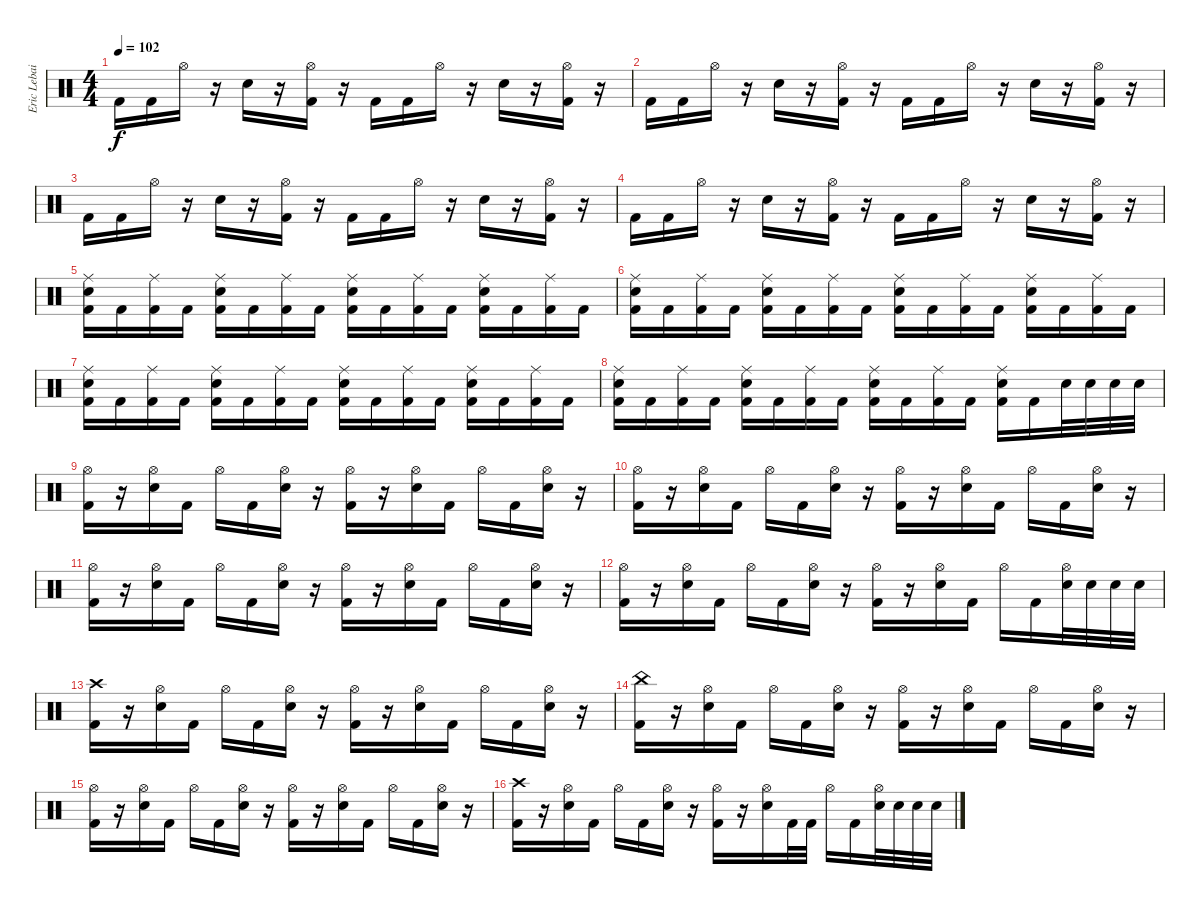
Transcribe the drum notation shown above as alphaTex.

\track ("Eric Lebailly" "Eric Lebai") {instrument percussion}
\staff {score}
\articulation defaults
\ts (4 4)
\tempo 102
\clef neutral
\ks c "Kick (hit) 2".16{dy f} "Kick (hit) 2".16 "Hi-Hat (open)".16
r.16 "Snare (hit) 2".16 r.16 ("Hi-Hat (open)" "Kick (hit) 2").16 r.16 "Kick (hit) 2".16 "Kick (hit) 2".16 "Hi-Hat (open)".16 r.16 "Snare (hit) 2".16 r.16 ("Hi-Hat (open)" "Kick (hit) 2").16 r.16 |
"Kick (hit) 2".16 "Kick (hit) 2".16 "Hi-Hat (open)".16 r.16 "Snare (hit) 2".16 r.16 ("Hi-Hat (open)" "Kick (hit) 2").16 r.16 "Kick (hit) 2".16 "Kick (hit) 2".16 "Hi-Hat (open)".16 r.16 "Snare (hit) 2".16 r.16 ("Hi-Hat (open)" "Kick (hit) 2").16 r.16 |
"Kick (hit) 2".16 "Kick (hit) 2".16 "Hi-Hat (open)".16 r.16 "Snare (hit) 2".16 r.16 ("Hi-Hat (open)" "Kick (hit) 2").16 r.16 "Kick (hit) 2".16 "Kick (hit) 2".16 "Hi-Hat (open)".16 r.16 "Snare (hit) 2".16 r.16 ("Hi-Hat (open)" "Kick (hit) 2").16 r.16 |
"Kick (hit) 2".16 "Kick (hit) 2".16 "Hi-Hat (open)".16 r.16 "Snare (hit) 2".16 r.16 ("Hi-Hat (open)" "Kick (hit) 2").16 r.16 "Kick (hit) 2".16 "Kick (hit) 2".16 "Hi-Hat (open)".16 r.16 "Snare (hit) 2".16 r.16 ("Hi-Hat (open)" "Kick (hit) 2").16 r.16 |
("Ride (middle)" "Snare (hit) 2" "Kick (hit) 2").16 "Kick (hit) 2".16 ("Ride (middle)" "Kick (hit) 2").16 "Kick (hit) 2".16 ("Ride (middle)" "Snare (hit) 2" "Kick (hit) 2").16 "Kick (hit) 2".16 ("Ride (middle)" "Kick (hit) 2").16 "Kick (hit) 2".16 ("Ride (middle)" "Snare (hit) 2" "Kick (hit) 2").16 "Kick (hit) 2".16 ("Ride (middle)" "Kick (hit) 2").16 "Kick (hit) 2".16 ("Ride (middle)" "Snare (hit) 2" "Kick (hit) 2").16 "Kick (hit) 2".16 ("Ride (middle)" "Kick (hit) 2").16 "Kick (hit) 2".16 |
("Ride (middle)" "Snare (hit) 2" "Kick (hit) 2").16 "Kick (hit) 2".16 ("Ride (middle)" "Kick (hit) 2").16 "Kick (hit) 2".16 ("Ride (middle)" "Snare (hit) 2" "Kick (hit) 2").16 "Kick (hit) 2".16 ("Ride (middle)" "Kick (hit) 2").16 "Kick (hit) 2".16 ("Ride (middle)" "Snare (hit) 2" "Kick (hit) 2").16 "Kick (hit) 2".16 ("Ride (middle)" "Kick (hit) 2").16 "Kick (hit) 2".16 ("Ride (middle)" "Snare (hit) 2" "Kick (hit) 2").16 "Kick (hit) 2".16 ("Ride (middle)" "Kick (hit) 2").16 "Kick (hit) 2".16 |
("Ride (middle)" "Snare (hit) 2" "Kick (hit) 2").16 "Kick (hit) 2".16 ("Ride (middle)" "Kick (hit) 2").16 "Kick (hit) 2".16 ("Ride (middle)" "Snare (hit) 2" "Kick (hit) 2").16 "Kick (hit) 2".16 ("Ride (middle)" "Kick (hit) 2").16 "Kick (hit) 2".16 ("Ride (middle)" "Snare (hit) 2" "Kick (hit) 2").16 "Kick (hit) 2".16 ("Ride (middle)" "Kick (hit) 2").16 "Kick (hit) 2".16 ("Ride (middle)" "Snare (hit) 2" "Kick (hit) 2").16 "Kick (hit) 2".16 ("Ride (middle)" "Kick (hit) 2").16 "Kick (hit) 2".16 |
("Ride (middle)" "Snare (hit) 2" "Kick (hit) 2").16 "Kick (hit) 2".16 ("Ride (middle)" "Kick (hit) 2").16 "Kick (hit) 2".16 ("Ride (middle)" "Snare (hit) 2" "Kick (hit) 2").16 "Kick (hit) 2".16 ("Ride (middle)" "Kick (hit) 2").16 "Kick (hit) 2".16 ("Ride (middle)" "Snare (hit) 2" "Kick (hit) 2").16 "Kick (hit) 2".16 ("Ride (middle)" "Kick (hit) 2").16 "Kick (hit) 2".16 ("Ride (middle)" "Snare (hit) 2" "Kick (hit) 2").16 "Kick (hit) 2".16 "Snare (hit) 2".32 "Snare (hit) 2".32 "Snare (hit) 2".32 "Snare (hit) 2".32 |
("Hi-Hat (open)" "Kick (hit) 2").16 r.16 ("Hi-Hat (open)" "Snare (hit) 2").16 "Kick (hit) 2".16 "Hi-Hat (open)".16 "Kick (hit) 2".16 ("Hi-Hat (open)" "Snare (hit) 2").16 r.16 ("Hi-Hat (open)" "Kick (hit) 2").16 r.16 ("Hi-Hat (open)" "Snare (hit) 2").16 "Kick (hit) 2".16 "Hi-Hat (open)".16 "Kick (hit) 2".16 ("Hi-Hat (open)" "Snare (hit) 2").16 r.16 |
("Hi-Hat (open)" "Kick (hit) 2").16 r.16 ("Hi-Hat (open)" "Snare (hit) 2").16 "Kick (hit) 2".16 "Hi-Hat (open)".16 "Kick (hit) 2".16 ("Hi-Hat (open)" "Snare (hit) 2").16 r.16 ("Hi-Hat (open)" "Kick (hit) 2").16 r.16 ("Hi-Hat (open)" "Snare (hit) 2").16 "Kick (hit) 2".16 "Hi-Hat (open)".16 "Kick (hit) 2".16 ("Hi-Hat (open)" "Snare (hit) 2").16 r.16 |
("Hi-Hat (open)" "Kick (hit) 2").16 r.16 ("Hi-Hat (open)" "Snare (hit) 2").16 "Kick (hit) 2".16 "Hi-Hat (open)".16 "Kick (hit) 2".16 ("Hi-Hat (open)" "Snare (hit) 2").16 r.16 ("Hi-Hat (open)" "Kick (hit) 2").16 r.16 ("Hi-Hat (open)" "Snare (hit) 2").16 "Kick (hit) 2".16 "Hi-Hat (open)".16 "Kick (hit) 2".16 ("Hi-Hat (open)" "Snare (hit) 2").16 r.16 |
("Hi-Hat (open)" "Kick (hit) 2").16 r.16 ("Hi-Hat (open)" "Snare (hit) 2").16 "Kick (hit) 2".16 "Hi-Hat (open)".16 "Kick (hit) 2".16 ("Hi-Hat (open)" "Snare (hit) 2").16 r.16 ("Hi-Hat (open)" "Kick (hit) 2").16 r.16 ("Hi-Hat (open)" "Snare (hit) 2").16 "Kick (hit) 2".16 "Hi-Hat (open)".16 "Kick (hit) 2".16 ("Hi-Hat (open)" "Snare (hit) 2").32 "Snare (hit) 2".32 "Snare (hit) 2".32 "Snare (hit) 2".32 |
("Crash high (hit)" "Kick (hit) 2").16 r.16 ("Hi-Hat (open)" "Snare (hit) 2").16 "Kick (hit) 2".16 "Hi-Hat (open)".16 "Kick (hit) 2".16 ("Hi-Hat (open)" "Snare (hit) 2").16 r.16 ("Hi-Hat (open)" "Kick (hit) 2").16 r.16 ("Hi-Hat (open)" "Snare (hit) 2").16 "Kick (hit) 2".16 "Hi-Hat (open)".16 "Kick (hit) 2".16 ("Hi-Hat (open)" "Snare (hit) 2").16 r.16 |
("China (hit)" "Kick (hit) 2").16 r.16 ("Hi-Hat (open)" "Snare (hit) 2").16 "Kick (hit) 2".16 "Hi-Hat (open)".16 "Kick (hit) 2".16 ("Hi-Hat (open)" "Snare (hit) 2").16 r.16 ("Hi-Hat (open)" "Kick (hit) 2").16 r.16 ("Hi-Hat (open)" "Snare (hit) 2").16 "Kick (hit) 2".16 "Hi-Hat (open)".16 "Kick (hit) 2".16 ("Hi-Hat (open)" "Snare (hit) 2").16 r.16 |
("Hi-Hat (open)" "Kick (hit) 2").16 r.16 ("Hi-Hat (open)" "Snare (hit) 2").16 "Kick (hit) 2".16 "Hi-Hat (open)".16 "Kick (hit) 2".16 ("Hi-Hat (open)" "Snare (hit) 2").16 r.16 ("Hi-Hat (open)" "Kick (hit) 2").16 r.16 ("Hi-Hat (open)" "Snare (hit) 2").16 "Kick (hit) 2".16 "Hi-Hat (open)".16 "Kick (hit) 2".16 ("Hi-Hat (open)" "Snare (hit) 2").16 r.16 |
("Crash high (hit)" "Kick (hit) 2").16 r.16 ("Hi-Hat (open)" "Snare (hit) 2").16 "Kick (hit) 2".16 "Hi-Hat (open)".16 "Kick (hit) 2".16 ("Hi-Hat (open)" "Snare (hit) 2").16 r.16 ("Hi-Hat (open)" "Kick (hit) 2").16 r.16 ("Hi-Hat (open)" "Snare (hit) 2").16 "Kick (hit) 2".32 "Kick (hit) 2".32 "Hi-Hat (open)".16 "Kick (hit) 2".16 ("Hi-Hat (open)" "Snare (hit) 2").32 "Snare (hit) 2".32 "Snare (hit) 2".32 "Snare (hit) 2".32
